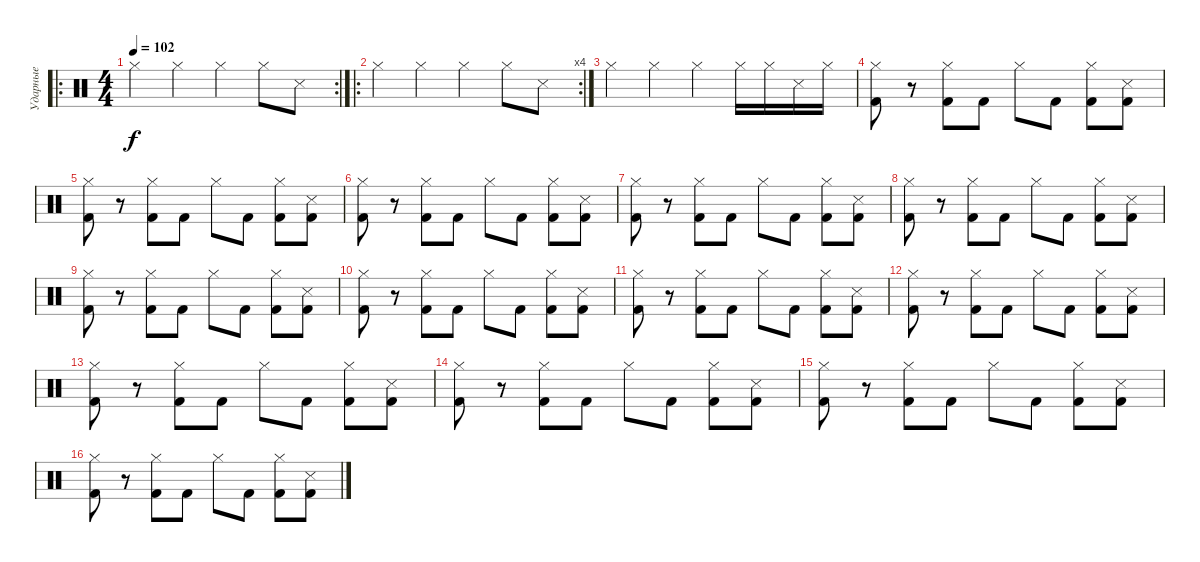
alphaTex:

\track ("Ударные" "Ударные") {instrument percussion}
\staff {score}
\articulation defaults
\ro
\rc 2
\ts (4 4)
\tempo 102
\clef neutral
\ks c "Hi-Hat (closed)".4{dy f} "Hi-Hat (closed)".4 "Hi-Hat (closed)".4 "Hi-Hat (closed)".8 "Metronome (hit)".8
|
\ro
\rc 4 "Hi-Hat (closed)".4 "Hi-Hat (closed)".4 "Hi-Hat (closed)".4 "Hi-Hat (closed)".8 "Metronome (hit)".8
|
"Hi-Hat (closed)".4 "Hi-Hat (closed)".4 "Hi-Hat (closed)".4 "Hi-Hat (closed)".16 "Hi-Hat (closed)".16 "Metronome (hit)".16 "Hi-Hat (closed)".16 |
("Hi-Hat (closed)" "Kick (hit) 2").8 r.8 ("Hi-Hat (closed)" "Kick (hit) 2").8 "Kick (hit) 2".8 "Hi-Hat (closed)".8 "Kick (hit) 2".8 ("Hi-Hat (closed)" "Kick (hit) 2").8 ("Metronome (hit)" "Kick (hit) 2").8 |
("Hi-Hat (closed)" "Kick (hit) 2").8 r.8 ("Hi-Hat (closed)" "Kick (hit) 2").8 "Kick (hit) 2".8 "Hi-Hat (closed)".8 "Kick (hit) 2".8 ("Hi-Hat (closed)" "Kick (hit) 2").8 ("Metronome (hit)" "Kick (hit) 2").8 |
("Hi-Hat (closed)" "Kick (hit) 2").8 r.8 ("Hi-Hat (closed)" "Kick (hit) 2").8 "Kick (hit) 2".8 "Hi-Hat (closed)".8 "Kick (hit) 2".8 ("Hi-Hat (closed)" "Kick (hit) 2").8 ("Metronome (hit)" "Kick (hit) 2").8 |
("Hi-Hat (closed)" "Kick (hit) 2").8 r.8 ("Hi-Hat (closed)" "Kick (hit) 2").8 "Kick (hit) 2".8 "Hi-Hat (closed)".8 "Kick (hit) 2".8 ("Hi-Hat (closed)" "Kick (hit) 2").8 ("Metronome (hit)" "Kick (hit) 2").8 |
("Hi-Hat (closed)" "Kick (hit) 2").8 r.8 ("Hi-Hat (closed)" "Kick (hit) 2").8 "Kick (hit) 2".8 "Hi-Hat (closed)".8 "Kick (hit) 2".8 ("Hi-Hat (closed)" "Kick (hit) 2").8 ("Metronome (hit)" "Kick (hit) 2").8 |
("Hi-Hat (closed)" "Kick (hit) 2").8 r.8 ("Hi-Hat (closed)" "Kick (hit) 2").8 "Kick (hit) 2".8 "Hi-Hat (closed)".8 "Kick (hit) 2".8 ("Hi-Hat (closed)" "Kick (hit) 2").8 ("Metronome (hit)" "Kick (hit) 2").8 |
("Hi-Hat (closed)" "Kick (hit) 2").8 r.8 ("Hi-Hat (closed)" "Kick (hit) 2").8 "Kick (hit) 2".8 "Hi-Hat (closed)".8 "Kick (hit) 2".8 ("Hi-Hat (closed)" "Kick (hit) 2").8 ("Metronome (hit)" "Kick (hit) 2").8 |
("Hi-Hat (closed)" "Kick (hit) 2").8 r.8 ("Hi-Hat (closed)" "Kick (hit) 2").8 "Kick (hit) 2".8 "Hi-Hat (closed)".8 "Kick (hit) 2".8 ("Hi-Hat (closed)" "Kick (hit) 2").8 ("Metronome (hit)" "Kick (hit) 2").8 |
("Hi-Hat (closed)" "Kick (hit) 2").8 r.8 ("Hi-Hat (closed)" "Kick (hit) 2").8 "Kick (hit) 2".8 "Hi-Hat (closed)".8 "Kick (hit) 2".8 ("Hi-Hat (closed)" "Kick (hit) 2").8 ("Metronome (hit)" "Kick (hit) 2").8 |
("Hi-Hat (closed)" "Kick (hit) 2").8 r.8 ("Hi-Hat (closed)" "Kick (hit) 2").8 "Kick (hit) 2".8 "Hi-Hat (closed)".8 "Kick (hit) 2".8 ("Hi-Hat (closed)" "Kick (hit) 2").8 ("Metronome (hit)" "Kick (hit) 2").8 |
("Hi-Hat (closed)" "Kick (hit) 2").8 r.8 ("Hi-Hat (closed)" "Kick (hit) 2").8 "Kick (hit) 2".8 "Hi-Hat (closed)".8 "Kick (hit) 2".8 ("Hi-Hat (closed)" "Kick (hit) 2").8 ("Metronome (hit)" "Kick (hit) 2").8 |
("Hi-Hat (closed)" "Kick (hit) 2").8 r.8 ("Hi-Hat (closed)" "Kick (hit) 2").8 "Kick (hit) 2".8 "Hi-Hat (closed)".8 "Kick (hit) 2".8 ("Hi-Hat (closed)" "Kick (hit) 2").8 ("Metronome (hit)" "Kick (hit) 2").8 |
("Hi-Hat (closed)" "Kick (hit) 2").8 r.8 ("Hi-Hat (closed)" "Kick (hit) 2").8 "Kick (hit) 2".8 "Hi-Hat (closed)".8 "Kick (hit) 2".8 ("Hi-Hat (closed)" "Kick (hit) 2").8 ("Metronome (hit)" "Kick (hit) 2").8
